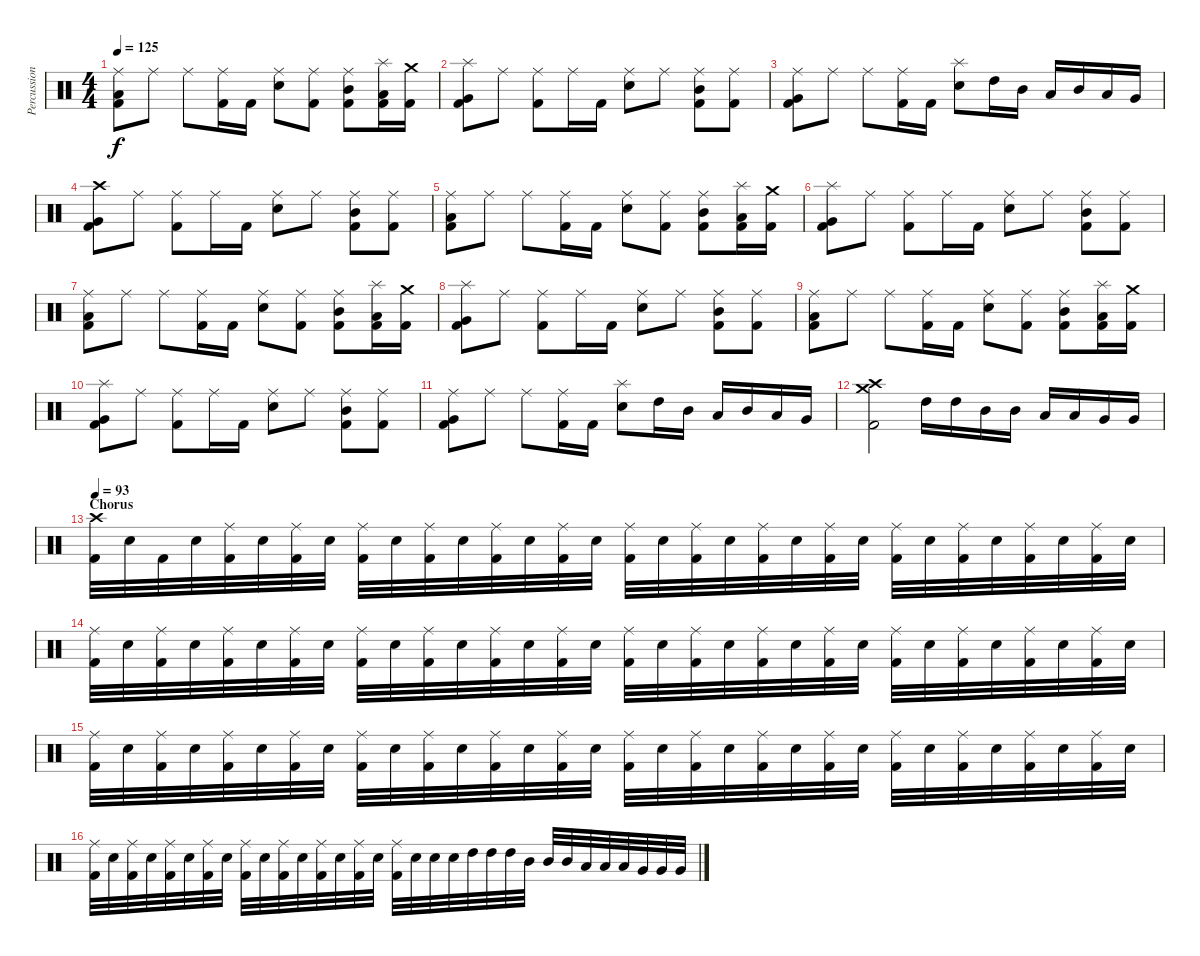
\track ("Percussion" "Percussion") {instrument percussion}
\staff {score}
\articulation defaults
\ts (4 4)
\tempo 125
\clef neutral
\ks c
("Ride (middle)" "Low Tom (hit)" "Kick (hit) 2").8{dy f} "Ride (middle)".8 "Ride (middle)".8 ("Ride (middle)" "Kick (hit) 2").16 "Kick (hit) 2".16 ("Ride (middle)" "Snare (hit) 2").8 ("Ride (middle)" "Kick (hit) 2").8 ("Ride (middle)" "Mid Tom (hit)" "Kick (hit) 2").8 ("Splash (hit)" "Low Tom (hit)" "Kick (hit) 2").16 ("Crash medium (hit)" "Kick (hit) 2").16 |
("Splash (hit)" "Very Low Tom (hit)" "Kick (hit) 2").8 "Ride (middle)".8 ("Ride (middle)" "Kick (hit) 2").8 "Ride (middle)".16 "Kick (hit) 2".16 ("Ride (middle)" "Snare (hit) 2").8 "Ride (middle)".8 ("Ride (middle)" "Mid Tom (hit)" "Kick (hit) 2").8 ("Ride (middle)" "Kick (hit) 2").8 |
("Ride (middle)" "Very Low Tom (hit)" "Kick (hit) 2").8 "Ride (middle)".8 "Ride (middle)".8 ("Ride (middle)" "Kick (hit) 2").16 "Kick (hit) 2".16 ("Splash (hit)" "Snare (hit) 2").8 "High Tom (hit)".16 "Mid Tom (hit)".16 "Low Tom (hit)".16 "Mid Tom (hit)".16 "Low Tom (hit)".16 "Very Low Tom (hit)".16 |
("Crash high (hit)" "Very Low Tom (hit)" "Kick (hit) 2").8 "Ride (middle)".8 ("Ride (middle)" "Kick (hit) 2").8 "Ride (middle)".16 "Kick (hit) 2".16 ("Ride (middle)" "Snare (hit) 2").8 "Ride (middle)".8 ("Ride (middle)" "Mid Tom (hit)" "Kick (hit) 2").8 ("Ride (middle)" "Kick (hit) 2").8 |
("Ride (middle)" "Low Tom (hit)" "Kick (hit) 2").8 "Ride (middle)".8 "Ride (middle)".8 ("Ride (middle)" "Kick (hit) 2").16 "Kick (hit) 2".16 ("Ride (middle)" "Snare (hit) 2").8 ("Ride (middle)" "Kick (hit) 2").8 ("Ride (middle)" "Mid Tom (hit)" "Kick (hit) 2").8 ("Splash (hit)" "Low Tom (hit)" "Kick (hit) 2").16 ("Crash medium (hit)" "Kick (hit) 2").16 |
("Splash (hit)" "Very Low Tom (hit)" "Kick (hit) 2").8 "Ride (middle)".8 ("Ride (middle)" "Kick (hit) 2").8 "Ride (middle)".16 "Kick (hit) 2".16 ("Ride (middle)" "Snare (hit) 2").8 "Ride (middle)".8 ("Ride (middle)" "Mid Tom (hit)" "Kick (hit) 2").8 ("Ride (middle)" "Kick (hit) 2").8 |
("Ride (middle)" "Low Tom (hit)" "Kick (hit) 2").8 "Ride (middle)".8 "Ride (middle)".8 ("Ride (middle)" "Kick (hit) 2").16 "Kick (hit) 2".16 ("Ride (middle)" "Snare (hit) 2").8 ("Ride (middle)" "Kick (hit) 2").8 ("Ride (middle)" "Mid Tom (hit)" "Kick (hit) 2").8 ("Splash (hit)" "Low Tom (hit)" "Kick (hit) 2").16 ("Crash medium (hit)" "Kick (hit) 2").16 |
("Splash (hit)" "Very Low Tom (hit)" "Kick (hit) 2").8 "Ride (middle)".8 ("Ride (middle)" "Kick (hit) 2").8 "Ride (middle)".16 "Kick (hit) 2".16 ("Ride (middle)" "Snare (hit) 2").8 "Ride (middle)".8 ("Ride (middle)" "Mid Tom (hit)" "Kick (hit) 2").8 ("Ride (middle)" "Kick (hit) 2").8 |
("Ride (middle)" "Low Tom (hit)" "Kick (hit) 2").8 "Ride (middle)".8 "Ride (middle)".8 ("Ride (middle)" "Kick (hit) 2").16 "Kick (hit) 2".16 ("Ride (middle)" "Snare (hit) 2").8 ("Ride (middle)" "Kick (hit) 2").8 ("Ride (middle)" "Mid Tom (hit)" "Kick (hit) 2").8 ("Splash (hit)" "Low Tom (hit)" "Kick (hit) 2").16 ("Crash medium (hit)" "Kick (hit) 2").16 |
("Splash (hit)" "Very Low Tom (hit)" "Kick (hit) 2").8 "Ride (middle)".8 ("Ride (middle)" "Kick (hit) 2").8 "Ride (middle)".16 "Kick (hit) 2".16 ("Ride (middle)" "Snare (hit) 2").8 "Ride (middle)".8 ("Ride (middle)" "Mid Tom (hit)" "Kick (hit) 2").8 ("Ride (middle)" "Kick (hit) 2").8 |
("Ride (middle)" "Very Low Tom (hit)" "Kick (hit) 2").8 "Ride (middle)".8 "Ride (middle)".8 ("Ride (middle)" "Kick (hit) 2").16 "Kick (hit) 2".16 ("Splash (hit)" "Snare (hit) 2").8 "High Tom (hit)".16 "Mid Tom (hit)".16 "Low Tom (hit)".16 "Mid Tom (hit)".16 "Low Tom (hit)".16 "Very Low Tom (hit)".16 |
("Crash high (hit)" "Crash medium (hit)" "Kick (hit) 2").2 "High Tom (hit)".16 "High Tom (hit)".16 "Mid Tom (hit)".16 "Mid Tom (hit)".16 "Low Tom (hit)".16 "Low Tom (hit)".16 "Very Low Tom (hit)".16 "Very Low Tom (hit)".16 |
\section ("" "Chorus")
\tempo 93
("Crash high (hit)" "Kick (hit) 2").32 "Snare (hit) 2".32 "Kick (hit) 2".32 "Snare (hit) 2".32 ("Ride (middle)" "Kick (hit) 2").32 "Snare (hit) 2".32 ("Ride (middle)" "Kick (hit) 2").32 "Snare (hit) 2".32 ("Ride (middle)" "Kick (hit) 2").32 "Snare (hit) 2".32 ("Ride (middle)" "Kick (hit) 2").32 "Snare (hit) 2".32 ("Ride (middle)" "Kick (hit) 2").32 "Snare (hit) 2".32 ("Ride (middle)" "Kick (hit) 2").32 "Snare (hit) 2".32 ("Ride (middle)" "Kick (hit) 2").32 "Snare (hit) 2".32 ("Ride (middle)" "Kick (hit) 2").32 "Snare (hit) 2".32 ("Ride (middle)" "Kick (hit) 2").32 "Snare (hit) 2".32 ("Ride (middle)" "Kick (hit) 2").32 "Snare (hit) 2".32 ("Ride (middle)" "Kick (hit) 2").32 "Snare (hit) 2".32 ("Ride (middle)" "Kick (hit) 2").32 "Snare (hit) 2".32 ("Ride (middle)" "Kick (hit) 2").32 "Snare (hit) 2".32 ("Ride (middle)" "Kick (hit) 2").32 "Snare (hit) 2".32 |
("Ride (middle)" "Kick (hit) 2").32 "Snare (hit) 2".32 ("Ride (middle)" "Kick (hit) 2").32 "Snare (hit) 2".32 ("Ride (middle)" "Kick (hit) 2").32 "Snare (hit) 2".32 ("Ride (middle)" "Kick (hit) 2").32 "Snare (hit) 2".32 ("Ride (middle)" "Kick (hit) 2").32 "Snare (hit) 2".32 ("Ride (middle)" "Kick (hit) 2").32 "Snare (hit) 2".32 ("Ride (middle)" "Kick (hit) 2").32 "Snare (hit) 2".32 ("Ride (middle)" "Kick (hit) 2").32 "Snare (hit) 2".32 ("Ride (middle)" "Kick (hit) 2").32 "Snare (hit) 2".32 ("Ride (middle)" "Kick (hit) 2").32 "Snare (hit) 2".32 ("Ride (middle)" "Kick (hit) 2").32 "Snare (hit) 2".32 ("Ride (middle)" "Kick (hit) 2").32 "Snare (hit) 2".32 ("Ride (middle)" "Kick (hit) 2").32 "Snare (hit) 2".32 ("Ride (middle)" "Kick (hit) 2").32 "Snare (hit) 2".32 ("Ride (middle)" "Kick (hit) 2").32 "Snare (hit) 2".32 ("Ride (middle)" "Kick (hit) 2").32 "Snare (hit) 2".32 |
("Ride (middle)" "Kick (hit) 2").32 "Snare (hit) 2".32 ("Ride (middle)" "Kick (hit) 2").32 "Snare (hit) 2".32 ("Ride (middle)" "Kick (hit) 2").32 "Snare (hit) 2".32 ("Ride (middle)" "Kick (hit) 2").32 "Snare (hit) 2".32 ("Ride (middle)" "Kick (hit) 2").32 "Snare (hit) 2".32 ("Ride (middle)" "Kick (hit) 2").32 "Snare (hit) 2".32 ("Ride (middle)" "Kick (hit) 2").32 "Snare (hit) 2".32 ("Ride (middle)" "Kick (hit) 2").32 "Snare (hit) 2".32 ("Ride (middle)" "Kick (hit) 2").32 "Snare (hit) 2".32 ("Ride (middle)" "Kick (hit) 2").32 "Snare (hit) 2".32 ("Ride (middle)" "Kick (hit) 2").32 "Snare (hit) 2".32 ("Ride (middle)" "Kick (hit) 2").32 "Snare (hit) 2".32 ("Ride (middle)" "Kick (hit) 2").32 "Snare (hit) 2".32 ("Ride (middle)" "Kick (hit) 2").32 "Snare (hit) 2".32 ("Ride (middle)" "Kick (hit) 2").32 "Snare (hit) 2".32 ("Ride (middle)" "Kick (hit) 2").32 "Snare (hit) 2".32 |
("Ride (middle)" "Kick (hit) 2").32 "Snare (hit) 2".32 ("Ride (middle)" "Kick (hit) 2").32 "Snare (hit) 2".32 ("Ride (middle)" "Kick (hit) 2").32 "Snare (hit) 2".32 ("Ride (middle)" "Kick (hit) 2").32 "Snare (hit) 2".32 ("Ride (middle)" "Kick (hit) 2").32 "Snare (hit) 2".32 ("Ride (middle)" "Kick (hit) 2").32 "Snare (hit) 2".32 ("Ride (middle)" "Kick (hit) 2").32 "Snare (hit) 2".32 ("Ride (middle)" "Kick (hit) 2").32 "Snare (hit) 2".32 ("Ride (middle)" "Kick (hit) 2").32 "Snare (hit) 2".32 "Snare (hit) 2".32 "Snare (hit) 2".32 "High Tom (hit)".32 "High Tom (hit)".32 "High Tom (hit)".32 "Mid Tom (hit)".32 "Mid Tom (hit)".32 "Mid Tom (hit)".32 "Low Tom (hit)".32 "Low Tom (hit)".32 "Low Tom (hit)".32 "Very Low Tom (hit)".32 "Very Low Tom (hit)".32 "Very Low Tom (hit)".32
